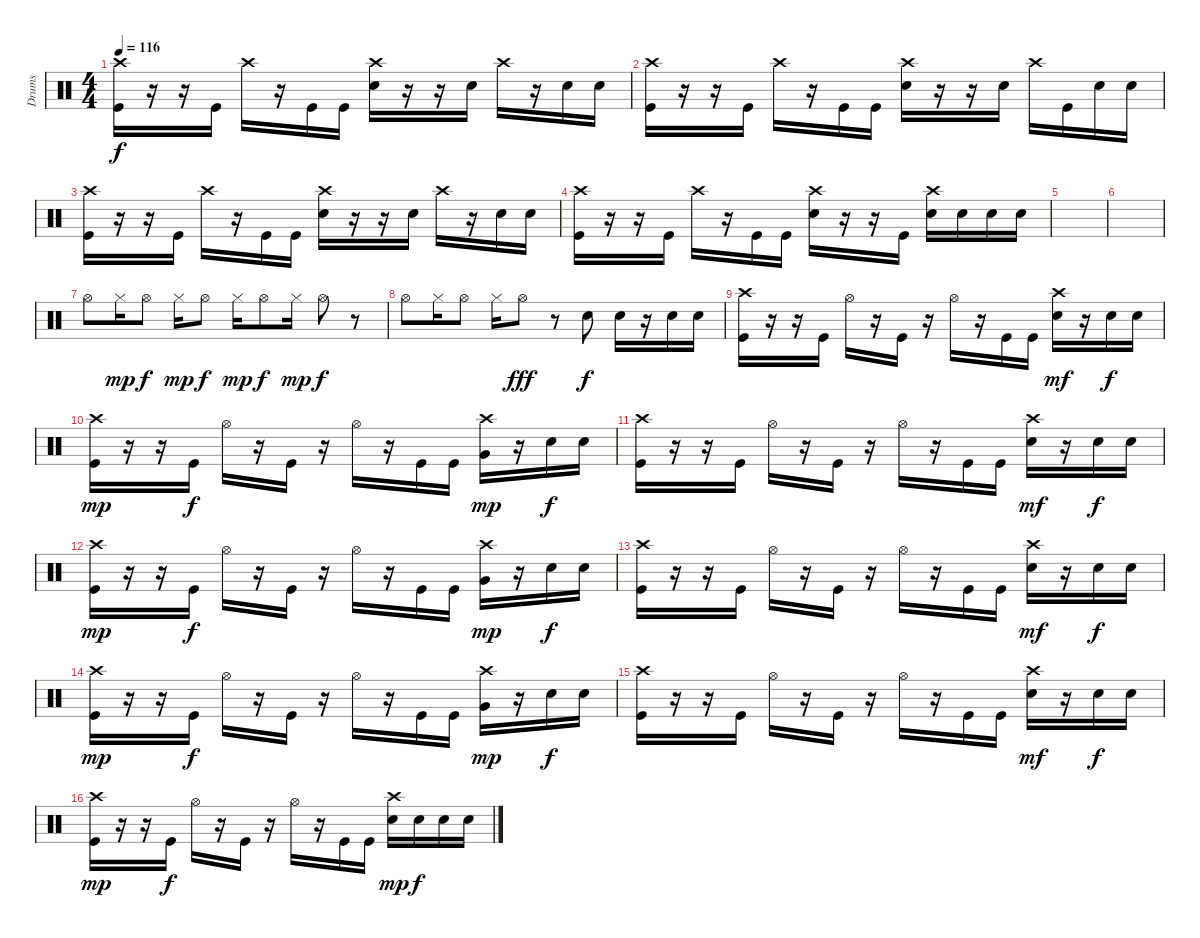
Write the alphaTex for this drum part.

\track ("Drums" "Drums") {instrument percussion}
\staff {score}
\articulation defaults
\ts (4 4)
\tempo 116
\clef neutral
\ks c
("Crash high (hit)" "Kick (hit)").16{dy f} r.16 r.16 "Kick (hit)".16 "Crash high (hit)".16 r.16 "Kick (hit)".16 "Kick (hit)".16 ("Crash high (hit)" "Snare (hit) 2").16 r.16 r.16 "Snare (hit) 2".16 "Crash high (hit)".16 r.16 "Snare (hit) 2".16 "Snare (hit) 2".16 |
("Crash high (hit)" "Kick (hit)").16 r.16 r.16 "Kick (hit)".16 "Crash high (hit)".16 r.16 "Kick (hit)".16 "Kick (hit)".16 ("Crash high (hit)" "Snare (hit) 2").16 r.16 r.16 "Snare (hit) 2".16 "Crash high (hit)".16 "Kick (hit)".16 "Snare (hit) 2".16 "Snare (hit) 2".16 |
("Crash high (hit)" "Kick (hit)").16 r.16 r.16 "Kick (hit)".16 "Crash high (hit)".16 r.16 "Kick (hit)".16 "Kick (hit)".16 ("Crash high (hit)" "Snare (hit) 2").16 r.16 r.16 "Snare (hit) 2".16 "Crash high (hit)".16 r.16 "Snare (hit) 2".16 "Snare (hit) 2".16 |
("Crash high (hit)" "Kick (hit)").16 r.16 r.16 "Kick (hit)".16 "Crash high (hit)".16 r.16 "Kick (hit)".16 "Kick (hit)".16 ("Crash high (hit)" "Snare (hit) 2").16 r.16 r.16 "Kick (hit)".16 ("Crash high (hit)" "Snare (hit) 2").16 "Snare (hit) 2".16 "Snare (hit) 2".16 "Snare (hit) 2".16 |
|
|
"Hi-Hat (open)".8 "Hi-Hat (closed)".16{dy mp} "Hi-Hat (open)".8{dy f} "Hi-Hat (closed)".16{dy mp} "Hi-Hat (open)".8{dy f} "Hi-Hat (closed)".16{dy mp} "Hi-Hat (open)".8{dy f} "Hi-Hat (closed)".16{dy mp} "Hi-Hat (open)".8{dy f} r.8 |
"Hi-Hat (open)".8 "Hi-Hat (closed)".16 "Hi-Hat (open)".8 "Hi-Hat (closed)".16 "Hi-Hat (open)".8{dy fff} r.8 "Snare (hit) 2".8{dy f} "Snare (hit) 2".16 r.16 "Snare (hit) 2".16 "Snare (hit) 2".16 |
("Crash high (hit)" "Kick (hit)").16 r.16 r.16 "Kick (hit)".16 "Hi-Hat (open)".16 r.16 "Kick (hit)".16 r.16 "Hi-Hat (open)".16 r.16 "Kick (hit)".16 "Kick (hit)".16 ("Crash high (hit)" "Snare (hit) 2").16{dy mf} r.16 "Snare (hit) 2".16{dy f} "Snare (hit) 2".16 |
("Crash high (hit)" "Kick (hit)").16{dy mp} r.16 r.16 "Kick (hit)".16{dy f} "Hi-Hat (open)".16 r.16 "Kick (hit)".16 r.16 "Hi-Hat (open)".16 r.16 "Kick (hit)".16 "Kick (hit)".16 ("Crash high (hit)" "Very Low Tom (hit)").16{dy mp} r.16 "Snare (hit) 2".16{dy f} "Snare (hit) 2".16 |
("Crash high (hit)" "Kick (hit)").16 r.16 r.16 "Kick (hit)".16 "Hi-Hat (open)".16 r.16 "Kick (hit)".16 r.16 "Hi-Hat (open)".16 r.16 "Kick (hit)".16 "Kick (hit)".16 ("Crash high (hit)" "Snare (hit) 2").16{dy mf} r.16 "Snare (hit) 2".16{dy f} "Snare (hit) 2".16 |
("Crash high (hit)" "Kick (hit)").16{dy mp} r.16 r.16 "Kick (hit)".16{dy f} "Hi-Hat (open)".16 r.16 "Kick (hit)".16 r.16 "Hi-Hat (open)".16 r.16 "Kick (hit)".16 "Kick (hit)".16 ("Crash high (hit)" "Very Low Tom (hit)").16{dy mp} r.16 "Snare (hit) 2".16{dy f} "Snare (hit) 2".16 |
("Crash high (hit)" "Kick (hit)").16 r.16 r.16 "Kick (hit)".16 "Hi-Hat (open)".16 r.16 "Kick (hit)".16 r.16 "Hi-Hat (open)".16 r.16 "Kick (hit)".16 "Kick (hit)".16 ("Crash high (hit)" "Snare (hit) 2").16{dy mf} r.16 "Snare (hit) 2".16{dy f} "Snare (hit) 2".16 |
("Crash high (hit)" "Kick (hit)").16{dy mp} r.16 r.16 "Kick (hit)".16{dy f} "Hi-Hat (open)".16 r.16 "Kick (hit)".16 r.16 "Hi-Hat (open)".16 r.16 "Kick (hit)".16 "Kick (hit)".16 ("Crash high (hit)" "Very Low Tom (hit)").16{dy mp} r.16 "Snare (hit) 2".16{dy f} "Snare (hit) 2".16 |
("Crash high (hit)" "Kick (hit)").16 r.16 r.16 "Kick (hit)".16 "Hi-Hat (open)".16 r.16 "Kick (hit)".16 r.16 "Hi-Hat (open)".16 r.16 "Kick (hit)".16 "Kick (hit)".16 ("Crash high (hit)" "Snare (hit) 2").16{dy mf} r.16 "Snare (hit) 2".16{dy f} "Snare (hit) 2".16 |
("Crash high (hit)" "Kick (hit)").16{dy mp} r.16 r.16 "Kick (hit)".16{dy f} "Hi-Hat (open)".16 r.16 "Kick (hit)".16 r.16 "Hi-Hat (open)".16 r.16 "Kick (hit)".16 "Kick (hit)".16 ("Crash high (hit)" "Snare (hit) 2").16{dy mp} "Snare (hit) 2".16{dy f} "Snare (hit) 2".16 "Snare (hit) 2".16
